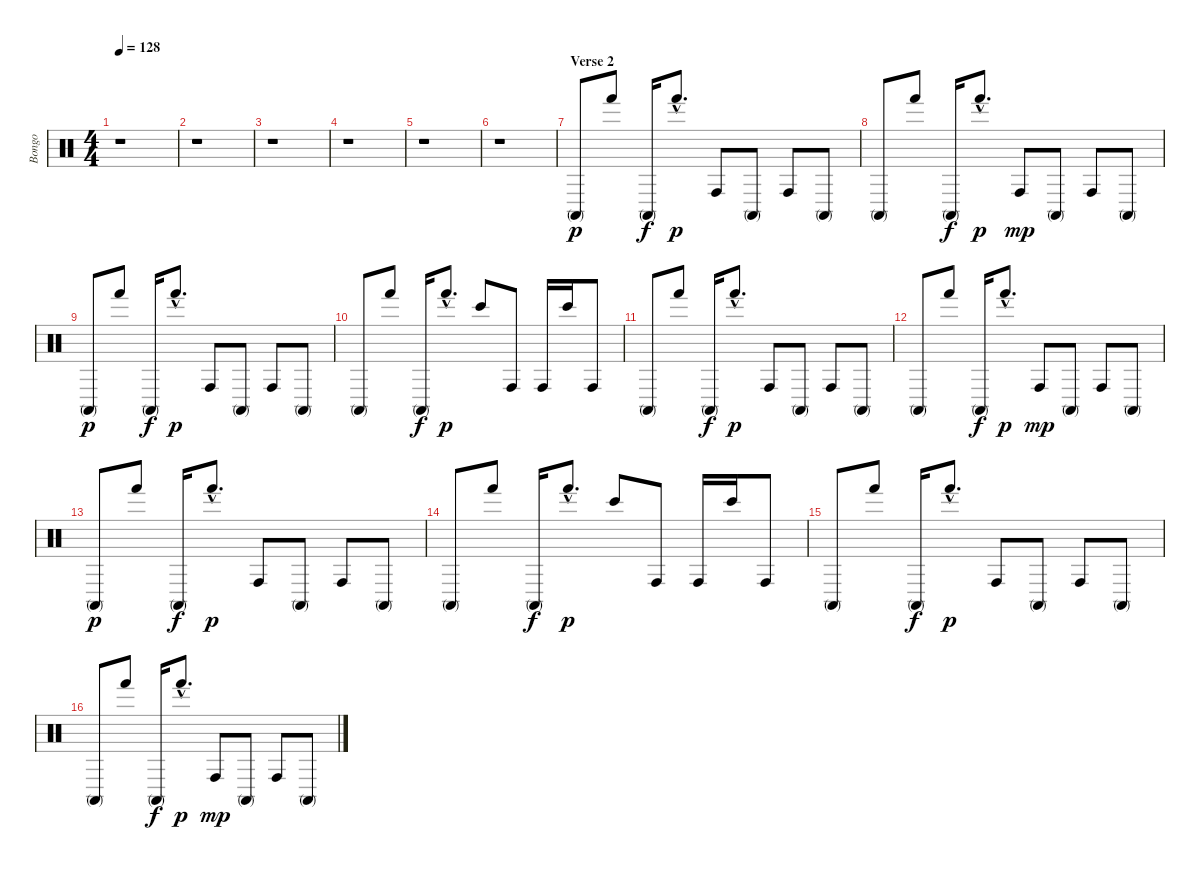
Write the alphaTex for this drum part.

\track ("Bongo" "Bongo") {instrument percussion}
\staff {score}
\articulation defaults
\ts (4 4)
\tempo 128
\clef neutral
\ks c
r.1{dy p} |
r.1 |
r.1 |
r.1 |
r.1 |
r.1 |
\section ("" "Verse 2")
"Conga high (mute)".8 "Hand (hit)".8 "Conga high (mute)".16{dy f} "Hand (hit)"{hac}.8{d dy p} "Conga high (hit)".8 "Conga high (mute)".8 "Conga high (hit)".8 "Conga high (mute)".8 |
"Conga high (mute)".8 "Hand (hit)".8 "Conga high (mute)".16{dy f} "Hand (hit)"{hac}.8{d dy p} "Conga high (hit)".8{dy mp} "Conga high (mute)".8 "Conga high (hit)".8 "Conga high (mute)".8 |
"Conga high (mute)".8{dy p} "Hand (hit)".8 "Conga high (mute)".16{dy f} "Hand (hit)"{hac}.8{d dy p} "Conga high (hit)".8 "Conga high (mute)".8 "Conga high (hit)".8 "Conga high (mute)".8 |
"Conga high (mute)".8 "Hand (hit)".8 "Conga high (mute)".16{dy f} "Hand (hit)"{hac}.8{d dy p} "Bongo High (hit)".8 "Conga high (hit)".8 "Conga high (hit)".16 "Bongo High (hit)".16 "Conga high (hit)".8 |
"Conga high (mute)".8 "Hand (hit)".8 "Conga high (mute)".16{dy f} "Hand (hit)"{hac}.8{d dy p} "Conga high (hit)".8 "Conga high (mute)".8 "Conga high (hit)".8 "Conga high (mute)".8 |
"Conga high (mute)".8 "Hand (hit)".8 "Conga high (mute)".16{dy f} "Hand (hit)"{hac}.8{d dy p} "Conga high (hit)".8{dy mp} "Conga high (mute)".8 "Conga high (hit)".8 "Conga high (mute)".8 |
"Conga high (mute)".8{dy p} "Hand (hit)".8 "Conga high (mute)".16{dy f} "Hand (hit)"{hac}.8{d dy p} "Conga high (hit)".8 "Conga high (mute)".8 "Conga high (hit)".8 "Conga high (mute)".8 |
"Conga high (mute)".8 "Hand (hit)".8 "Conga high (mute)".16{dy f} "Hand (hit)"{hac}.8{d dy p} "Bongo High (hit)".8 "Conga high (hit)".8 "Conga high (hit)".16 "Bongo High (hit)".16 "Conga high (hit)".8 |
"Conga high (mute)".8 "Hand (hit)".8 "Conga high (mute)".16{dy f} "Hand (hit)"{hac}.8{d dy p} "Conga high (hit)".8 "Conga high (mute)".8 "Conga high (hit)".8 "Conga high (mute)".8 |
"Conga high (mute)".8 "Hand (hit)".8 "Conga high (mute)".16{dy f} "Hand (hit)"{hac}.8{d dy p} "Conga high (hit)".8{dy mp} "Conga high (mute)".8 "Conga high (hit)".8 "Conga high (mute)".8
